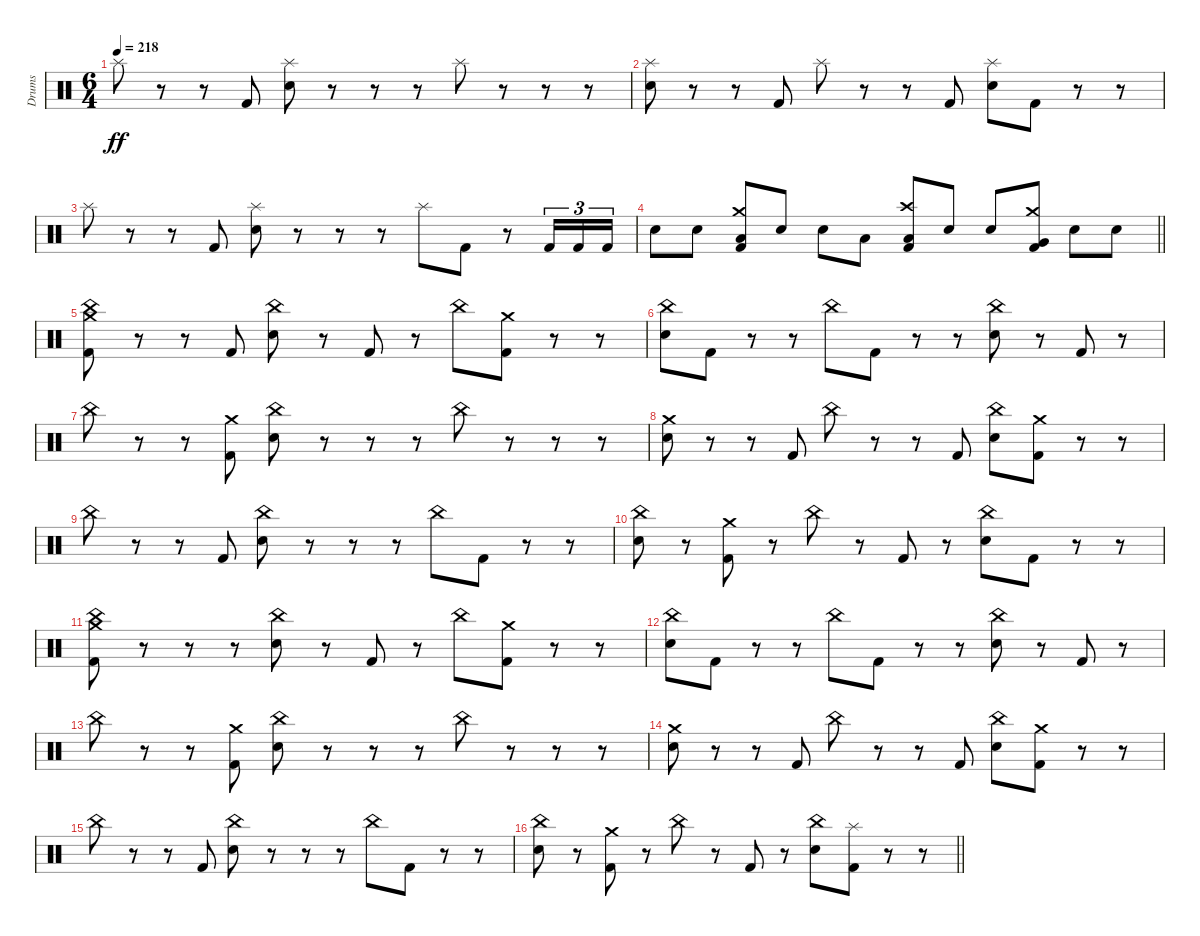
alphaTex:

\track ("Drums" "Drums") {instrument percussion}
\staff {score}
\articulation defaults
\ts (6 4)
\tempo 218
\clef neutral
\ks c "Splash (hit)".8{dy ff}
r.8 r.8 "Kick (hit) 2".8 ("Splash (hit)" "Electric Snare (hit)").8 r.8 r.8 r.8 "Splash (hit)".8 r.8 r.8 r.8 |
("Splash (hit)" "Electric Snare (hit)").8 r.8 r.8 "Kick (hit) 2".8 "Splash (hit)".8 r.8 r.8 "Kick (hit) 2".8 ("Splash (hit)" "Electric Snare (hit)").8 "Kick (hit) 2".8 r.8 r.8 |
"Splash (hit)".8 r.8 r.8 "Kick (hit) 2".8 ("Splash (hit)" "Electric Snare (hit)").8 r.8 r.8 r.8 "Splash (hit)".8 "Kick (hit) 2".8 r.8 "Kick (hit) 2".16{tu (3 2)} "Kick (hit) 2".16{tu (3 2)} "Kick (hit) 2".16{tu (3 2)} |
\barLineRight lightlight "Electric Snare (hit)".8 "Electric Snare (hit)".8
("Crash medium (hit)" "Low Tom (hit)" "Kick (hit) 2").8 "Electric Snare (hit)".8 "Electric Snare (hit)".8 "Low Tom (hit)".8 ("Crash high (hit)" "Low Floor Tom (hit)" "Kick (hit) 2").8 "Electric Snare (hit)".8 "Electric Snare (hit)".8 ("Crash medium (hit)" "Very Low Tom (hit)" "Kick (hit) 2").8 "Electric Snare (hit)".8 "Electric Snare (hit)".8 |
\section ("" "")
("Crash medium (hit)" "China (hit)" "Kick (hit) 2").8 r.8 r.8 "Kick (hit) 2".8 ("China (hit)" "Electric Snare (hit)").8 r.8 "Kick (hit) 2".8 r.8 "China (hit)".8 ("Crash medium (hit)" "Kick (hit) 2").8 r.8 r.8 |
("China (hit)" "Electric Snare (hit)").8 "Kick (hit) 2".8 r.8 r.8 "China (hit)".8 "Kick (hit) 2".8 r.8 r.8 ("China (hit)" "Electric Snare (hit)").8 r.8 "Kick (hit) 2".8 r.8 |
"China (hit)".8 r.8 r.8 ("Crash medium (hit)" "Kick (hit) 2").8 ("China (hit)" "Electric Snare (hit)").8 r.8 r.8 r.8 "China (hit)".8 r.8 r.8 r.8 |
("Crash medium (hit)" "Electric Snare (hit)").8 r.8 r.8 "Kick (hit) 2".8 "China (hit)".8 r.8 r.8 "Kick (hit) 2".8 ("China (hit)" "Electric Snare (hit)").8 ("Crash medium (hit)" "Kick (hit) 2").8 r.8 r.8 |
"China (hit)".8 r.8 r.8 "Kick (hit) 2".8 ("China (hit)" "Electric Snare (hit)").8 r.8 r.8 r.8 "China (hit)".8 "Kick (hit) 2".8 r.8 r.8 |
("China (hit)" "Electric Snare (hit)").8 r.8 ("Crash medium (hit)" "Kick (hit) 2").8 r.8 "China (hit)".8 r.8 "Kick (hit) 2".8 r.8 ("China (hit)" "Electric Snare (hit)").8 "Kick (hit) 2".8 r.8 r.8 |
("Crash medium (hit)" "China (hit)" "Kick (hit) 2").8 r.8 r.8 r.8 ("China (hit)" "Electric Snare (hit)").8 r.8 "Kick (hit) 2".8 r.8 "China (hit)".8 ("Crash medium (hit)" "Kick (hit) 2").8 r.8 r.8 |
("China (hit)" "Electric Snare (hit)").8 "Kick (hit) 2".8 r.8 r.8 "China (hit)".8 "Kick (hit) 2".8 r.8 r.8 ("China (hit)" "Electric Snare (hit)").8 r.8 "Kick (hit) 2".8 r.8 |
"China (hit)".8 r.8 r.8 ("Crash medium (hit)" "Kick (hit) 2").8 ("China (hit)" "Electric Snare (hit)").8 r.8 r.8 r.8 "China (hit)".8 r.8 r.8 r.8 |
("Crash medium (hit)" "Electric Snare (hit)").8 r.8 r.8 "Kick (hit) 2".8 "China (hit)".8 r.8 r.8 "Kick (hit) 2".8 ("China (hit)" "Electric Snare (hit)").8 ("Crash medium (hit)" "Kick (hit) 2").8 r.8 r.8 |
"China (hit)".8 r.8 r.8 "Kick (hit) 2".8 ("China (hit)" "Electric Snare (hit)").8 r.8 r.8 r.8 "China (hit)".8 "Kick (hit) 2".8 r.8 r.8 |
\barLineRight lightlight
("China (hit)" "Electric Snare (hit)").8 r.8 ("Crash medium (hit)" "Kick (hit) 2").8 r.8 "China (hit)".8 r.8 "Kick (hit) 2".8 r.8 ("China (hit)" "Electric Snare (hit)").8 ("Splash (hit)" "Kick (hit) 2").8 r.8 r.8
